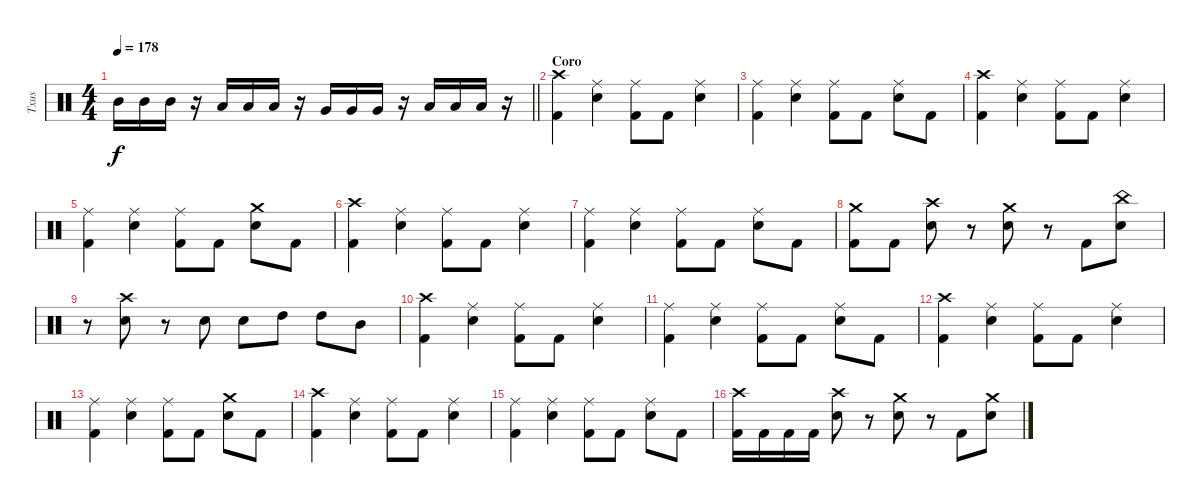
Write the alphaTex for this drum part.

\track ("Txus" "Txus") {instrument percussion}
\staff {score}
\articulation defaults
\ts (4 4)
\tempo 178
\clef neutral
\barLineRight lightlight
\ks c "Mid Tom (hit)".16{dy f} "Mid Tom (hit)".16 "Mid Tom (hit)".16
r.16 "Low Tom (hit)".16 "Low Tom (hit)".16 "Low Tom (hit)".16 r.16 "Very Low Tom (hit)".16 "Very Low Tom (hit)".16 "Very Low Tom (hit)".16 r.16 "Low Floor Tom (hit)".16 "Low Floor Tom (hit)".16 "Low Floor Tom (hit)".16 r.16 |
\section ("" "Coro")
("Crash high (hit)" "Kick (hit) 2").4 ("Ride (middle)" "Electric Snare (hit)").4 ("Ride (middle)" "Kick (hit) 2").8 "Kick (hit) 2".8 ("Ride (middle)" "Electric Snare (hit)").4 |
("Ride (middle)" "Kick (hit) 2").4 ("Ride (middle)" "Electric Snare (hit)").4 ("Ride (middle)" "Kick (hit) 2").8 "Kick (hit) 2".8 ("Ride (middle)" "Electric Snare (hit)").8 "Kick (hit) 2".8 |
("Crash high (hit)" "Kick (hit) 2").4 ("Ride (middle)" "Electric Snare (hit)").4 ("Ride (middle)" "Kick (hit) 2").8 "Kick (hit) 2".8 ("Ride (middle)" "Electric Snare (hit)").4 |
("Ride (middle)" "Kick (hit) 2").4 ("Ride (middle)" "Electric Snare (hit)").4 ("Ride (middle)" "Kick (hit) 2").8 "Kick (hit) 2".8 ("Crash medium (hit)" "Electric Snare (hit)").8 "Kick (hit) 2".8 |
("Crash high (hit)" "Kick (hit) 2").4 ("Ride (middle)" "Electric Snare (hit)").4 ("Ride (middle)" "Kick (hit) 2").8 "Kick (hit) 2".8 ("Ride (middle)" "Electric Snare (hit)").4 |
("Ride (middle)" "Kick (hit) 2").4 ("Ride (middle)" "Electric Snare (hit)").4 ("Ride (middle)" "Kick (hit) 2").8 "Kick (hit) 2".8 ("Ride (middle)" "Electric Snare (hit)").8 "Kick (hit) 2".8 |
("Crash medium (hit)" "Kick (hit) 2").8 "Kick (hit) 2".8 ("Crash high (hit)" "Electric Snare (hit)").8 r.8 ("Crash medium (hit)" "Electric Snare (hit)").8 r.8 "Kick (hit) 2".8 ("China (hit)" "Electric Snare (hit)").8 |
r.8 ("Crash high (hit)" "Electric Snare (hit)").8 r.8 "Electric Snare (hit)".8 "Electric Snare (hit)".8 "High Tom (hit)".8 "High Tom (hit)".8 "Mid Tom (hit)".8 |
("Crash high (hit)" "Kick (hit) 2").4 ("Ride (middle)" "Electric Snare (hit)").4 ("Ride (middle)" "Kick (hit) 2").8 "Kick (hit) 2".8 ("Ride (middle)" "Electric Snare (hit)").4 |
("Ride (middle)" "Kick (hit) 2").4 ("Ride (middle)" "Electric Snare (hit)").4 ("Ride (middle)" "Kick (hit) 2").8 "Kick (hit) 2".8 ("Ride (middle)" "Electric Snare (hit)").8 "Kick (hit) 2".8 |
("Crash high (hit)" "Kick (hit) 2").4 ("Ride (middle)" "Electric Snare (hit)").4 ("Ride (middle)" "Kick (hit) 2").8 "Kick (hit) 2".8 ("Ride (middle)" "Electric Snare (hit)").4 |
("Ride (middle)" "Kick (hit) 2").4 ("Ride (middle)" "Electric Snare (hit)").4 ("Ride (middle)" "Kick (hit) 2").8 "Kick (hit) 2".8 ("Crash medium (hit)" "Electric Snare (hit)").8 "Kick (hit) 2".8 |
("Crash high (hit)" "Kick (hit) 2").4 ("Ride (middle)" "Electric Snare (hit)").4 ("Ride (middle)" "Kick (hit) 2").8 "Kick (hit) 2".8 ("Ride (middle)" "Electric Snare (hit)").4 |
("Ride (middle)" "Kick (hit) 2").4 ("Ride (middle)" "Electric Snare (hit)").4 ("Ride (middle)" "Kick (hit) 2").8 "Kick (hit) 2".8 ("Ride (middle)" "Electric Snare (hit)").8 "Kick (hit) 2".8 |
("Crash high (hit)" "Kick (hit) 2").16 "Kick (hit) 2".16 "Kick (hit) 2".16 "Kick (hit) 2".16 ("Crash high (hit)" "Electric Snare (hit)").8 r.8 ("Crash medium (hit)" "Electric Snare (hit)").8 r.8 "Kick (hit) 2".8 ("Crash medium (hit)" "Electric Snare (hit)").8
